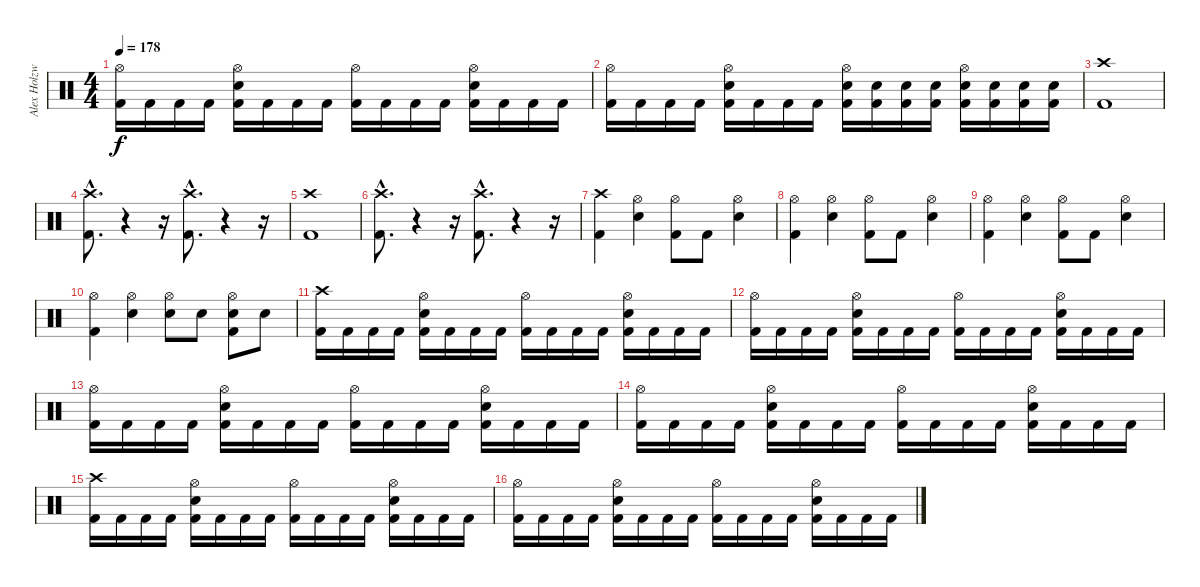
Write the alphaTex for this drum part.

\track ("Alex Holzwarth" "Alex Holzw") {instrument percussion}
\staff {score}
\articulation defaults
\ts (4 4)
\tempo 178
\clef neutral
\ks c
("Hi-Hat (open)" "Kick (hit) 2").16{dy f} "Kick (hit) 2".16 "Kick (hit) 2".16 "Kick (hit) 2".16 ("Hi-Hat (open)" "Electric Snare (hit)" "Kick (hit) 2").16 "Kick (hit) 2".16 "Kick (hit) 2".16 "Kick (hit) 2".16 ("Hi-Hat (open)" "Kick (hit) 2").16 "Kick (hit) 2".16 "Kick (hit) 2".16 "Kick (hit) 2".16 ("Hi-Hat (open)" "Electric Snare (hit)" "Kick (hit) 2").16 "Kick (hit) 2".16 "Kick (hit) 2".16 "Kick (hit) 2".16 |
("Hi-Hat (open)" "Kick (hit) 2").16 "Kick (hit) 2".16 "Kick (hit) 2".16 "Kick (hit) 2".16 ("Hi-Hat (open)" "Electric Snare (hit)" "Kick (hit) 2").16 "Kick (hit) 2".16 "Kick (hit) 2".16 "Kick (hit) 2".16 ("Hi-Hat (open)" "Electric Snare (hit)" "Kick (hit) 2").16 ("Electric Snare (hit)" "Kick (hit) 2").16 ("Electric Snare (hit)" "Kick (hit) 2").16 ("Electric Snare (hit)" "Kick (hit) 2").16 ("Hi-Hat (open)" "Electric Snare (hit)" "Kick (hit) 2").16 ("Electric Snare (hit)" "Kick (hit) 2").16 ("Electric Snare (hit)" "Kick (hit) 2").16 ("Electric Snare (hit)" "Kick (hit) 2").16 |
("Crash high (hit)" "Kick (hit) 2").1 |
("Crash high (hit)"{hac} "Kick (hit) 2"{hac}).8{d} r.4 r.16 ("Crash high (hit)"{hac} "Kick (hit) 2"{hac}).8{d} r.4 r.16 |
("Crash high (hit)" "Kick (hit) 2").1 |
("Crash high (hit)"{hac} "Kick (hit) 2"{hac}).8{d} r.4 r.16 ("Crash high (hit)"{hac} "Kick (hit) 2"{hac}).8{d} r.4 r.16 |
("Crash high (hit)" "Kick (hit) 2").4 ("Hi-Hat (open)" "Electric Snare (hit)").4 ("Hi-Hat (open)" "Kick (hit) 2").8 "Kick (hit) 2".8 ("Hi-Hat (open)" "Electric Snare (hit)").4 |
("Hi-Hat (open)" "Kick (hit) 2").4 ("Hi-Hat (open)" "Electric Snare (hit)").4 ("Hi-Hat (open)" "Kick (hit) 2").8 "Kick (hit) 2".8 ("Hi-Hat (open)" "Electric Snare (hit)").4 |
("Hi-Hat (open)" "Kick (hit) 2").4 ("Hi-Hat (open)" "Electric Snare (hit)").4 ("Hi-Hat (open)" "Kick (hit) 2").8 "Kick (hit) 2".8 ("Hi-Hat (open)" "Electric Snare (hit)").4 |
("Hi-Hat (open)" "Kick (hit) 2").4 ("Hi-Hat (open)" "Electric Snare (hit)").4 ("Hi-Hat (open)" "Electric Snare (hit)").8 "Electric Snare (hit)".8 ("Hi-Hat (open)" "Electric Snare (hit)" "Kick (hit) 2").8 "Electric Snare (hit)".8 |
("Crash high (hit)" "Kick (hit) 2").16 "Kick (hit) 2".16 "Kick (hit) 2".16 "Kick (hit) 2".16 ("Hi-Hat (open)" "Electric Snare (hit)" "Kick (hit) 2").16 "Kick (hit) 2".16 "Kick (hit) 2".16 "Kick (hit) 2".16 ("Hi-Hat (open)" "Kick (hit) 2").16 "Kick (hit) 2".16 "Kick (hit) 2".16 "Kick (hit) 2".16 ("Hi-Hat (open)" "Electric Snare (hit)" "Kick (hit) 2").16 "Kick (hit) 2".16 "Kick (hit) 2".16 "Kick (hit) 2".16 |
("Hi-Hat (open)" "Kick (hit) 2").16 "Kick (hit) 2".16 "Kick (hit) 2".16 "Kick (hit) 2".16 ("Hi-Hat (open)" "Electric Snare (hit)" "Kick (hit) 2").16 "Kick (hit) 2".16 "Kick (hit) 2".16 "Kick (hit) 2".16 ("Hi-Hat (open)" "Kick (hit) 2").16 "Kick (hit) 2".16 "Kick (hit) 2".16 "Kick (hit) 2".16 ("Hi-Hat (open)" "Electric Snare (hit)" "Kick (hit) 2").16 "Kick (hit) 2".16 "Kick (hit) 2".16 "Kick (hit) 2".16 |
("Hi-Hat (open)" "Kick (hit) 2").16 "Kick (hit) 2".16 "Kick (hit) 2".16 "Kick (hit) 2".16 ("Hi-Hat (open)" "Electric Snare (hit)" "Kick (hit) 2").16 "Kick (hit) 2".16 "Kick (hit) 2".16 "Kick (hit) 2".16 ("Hi-Hat (open)" "Kick (hit) 2").16 "Kick (hit) 2".16 "Kick (hit) 2".16 "Kick (hit) 2".16 ("Hi-Hat (open)" "Electric Snare (hit)" "Kick (hit) 2").16 "Kick (hit) 2".16 "Kick (hit) 2".16 "Kick (hit) 2".16 |
("Hi-Hat (open)" "Kick (hit) 2").16 "Kick (hit) 2".16 "Kick (hit) 2".16 "Kick (hit) 2".16 ("Hi-Hat (open)" "Electric Snare (hit)" "Kick (hit) 2").16 "Kick (hit) 2".16 "Kick (hit) 2".16 "Kick (hit) 2".16 ("Hi-Hat (open)" "Kick (hit) 2").16 "Kick (hit) 2".16 "Kick (hit) 2".16 "Kick (hit) 2".16 ("Hi-Hat (open)" "Electric Snare (hit)" "Kick (hit) 2").16 "Kick (hit) 2".16 "Kick (hit) 2".16 "Kick (hit) 2".16 |
("Crash high (hit)" "Kick (hit) 2").16 "Kick (hit) 2".16 "Kick (hit) 2".16 "Kick (hit) 2".16 ("Hi-Hat (open)" "Electric Snare (hit)" "Kick (hit) 2").16 "Kick (hit) 2".16 "Kick (hit) 2".16 "Kick (hit) 2".16 ("Hi-Hat (open)" "Kick (hit) 2").16 "Kick (hit) 2".16 "Kick (hit) 2".16 "Kick (hit) 2".16 ("Hi-Hat (open)" "Electric Snare (hit)" "Kick (hit) 2").16 "Kick (hit) 2".16 "Kick (hit) 2".16 "Kick (hit) 2".16 |
("Hi-Hat (open)" "Kick (hit) 2").16 "Kick (hit) 2".16 "Kick (hit) 2".16 "Kick (hit) 2".16 ("Hi-Hat (open)" "Electric Snare (hit)" "Kick (hit) 2").16 "Kick (hit) 2".16 "Kick (hit) 2".16 "Kick (hit) 2".16 ("Hi-Hat (open)" "Kick (hit) 2").16 "Kick (hit) 2".16 "Kick (hit) 2".16 "Kick (hit) 2".16 ("Hi-Hat (open)" "Electric Snare (hit)" "Kick (hit) 2").16 "Kick (hit) 2".16 "Kick (hit) 2".16 "Kick (hit) 2".16
